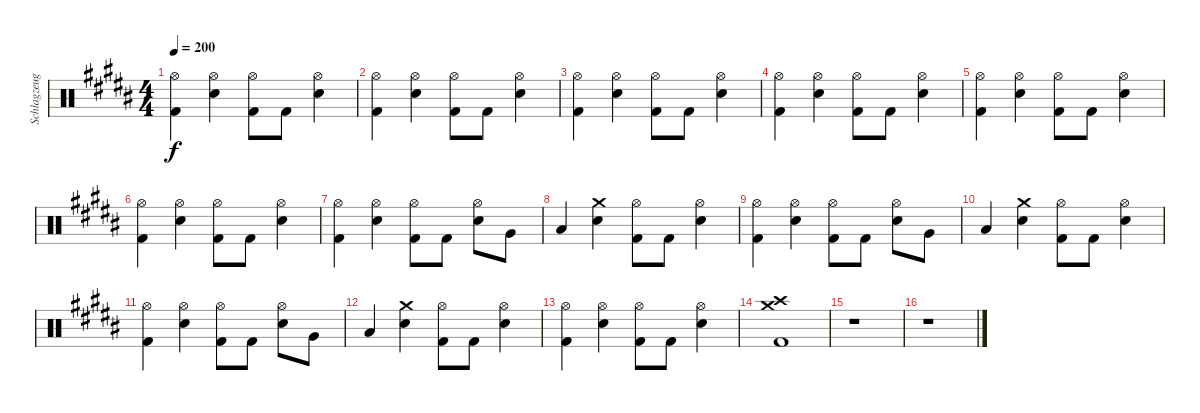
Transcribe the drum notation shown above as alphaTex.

\track ("Schlagzeug" "Schlagzeug") {instrument percussion}
\staff {score}
\articulation defaults
\ts (4 4)
\tempo 200
\clef neutral
\ks b
("Hi-Hat (open)" "Kick (hit) 2").4{dy f} ("Hi-Hat (open)" "Snare (hit) 2").4 ("Hi-Hat (open)" "Kick (hit) 2").8 "Kick (hit) 2".8 ("Hi-Hat (open)" "Snare (hit) 2").4 |
("Hi-Hat (open)" "Kick (hit) 2").4 ("Hi-Hat (open)" "Snare (hit) 2").4 ("Hi-Hat (open)" "Kick (hit) 2").8 "Kick (hit) 2".8 ("Hi-Hat (open)" "Snare (hit) 2").4 |
("Hi-Hat (open)" "Kick (hit) 2").4 ("Hi-Hat (open)" "Snare (hit) 2").4 ("Hi-Hat (open)" "Kick (hit) 2").8 "Kick (hit) 2".8 ("Hi-Hat (open)" "Snare (hit) 2").4 |
("Hi-Hat (open)" "Kick (hit) 2").4 ("Hi-Hat (open)" "Snare (hit) 2").4 ("Hi-Hat (open)" "Kick (hit) 2").8 "Kick (hit) 2".8 ("Hi-Hat (open)" "Snare (hit) 2").4 |
("Hi-Hat (open)" "Kick (hit) 2").4 ("Hi-Hat (open)" "Snare (hit) 2").4 ("Hi-Hat (open)" "Kick (hit) 2").8 "Kick (hit) 2".8 ("Hi-Hat (open)" "Snare (hit) 2").4 |
("Hi-Hat (open)" "Kick (hit) 2").4 ("Hi-Hat (open)" "Snare (hit) 2").4 ("Hi-Hat (open)" "Kick (hit) 2").8 "Kick (hit) 2".8 ("Hi-Hat (open)" "Snare (hit) 2").4 |
("Hi-Hat (open)" "Kick (hit) 2").4 ("Hi-Hat (open)" "Snare (hit) 2").4 ("Hi-Hat (open)" "Kick (hit) 2").8 "Kick (hit) 2".8 ("Hi-Hat (open)" "Snare (hit) 2").8 "Very Low Tom (hit)".8 |
"Low Floor Tom (hit)".4 ("Crash medium (hit)" "Snare (hit) 2").4 ("Hi-Hat (open)" "Kick (hit) 2").8 "Kick (hit) 2".8 ("Hi-Hat (open)" "Snare (hit) 2").4 |
("Hi-Hat (open)" "Kick (hit) 2").4 ("Hi-Hat (open)" "Snare (hit) 2").4 ("Hi-Hat (open)" "Kick (hit) 2").8 "Kick (hit) 2".8 ("Hi-Hat (open)" "Snare (hit) 2").8 "Very Low Tom (hit)".8 |
"Low Floor Tom (hit)".4 ("Crash medium (hit)" "Snare (hit) 2").4 ("Hi-Hat (open)" "Kick (hit) 2").8 "Kick (hit) 2".8 ("Hi-Hat (open)" "Snare (hit) 2").4 |
("Hi-Hat (open)" "Kick (hit) 2").4 ("Hi-Hat (open)" "Snare (hit) 2").4 ("Hi-Hat (open)" "Kick (hit) 2").8 "Kick (hit) 2".8 ("Hi-Hat (open)" "Snare (hit) 2").8 "Very Low Tom (hit)".8 |
"Low Floor Tom (hit)".4 ("Crash medium (hit)" "Snare (hit) 2").4 ("Hi-Hat (open)" "Kick (hit) 2").8 "Kick (hit) 2".8 ("Hi-Hat (open)" "Snare (hit) 2").4 |
("Hi-Hat (open)" "Kick (hit) 2").4 ("Hi-Hat (open)" "Snare (hit) 2").4 ("Hi-Hat (open)" "Kick (hit) 2").8 "Kick (hit) 2".8 ("Hi-Hat (open)" "Snare (hit) 2").4 |
("Crash high (hit)" "Crash medium (hit)" "Kick (hit) 2").1 |
r.1 |
r.1
